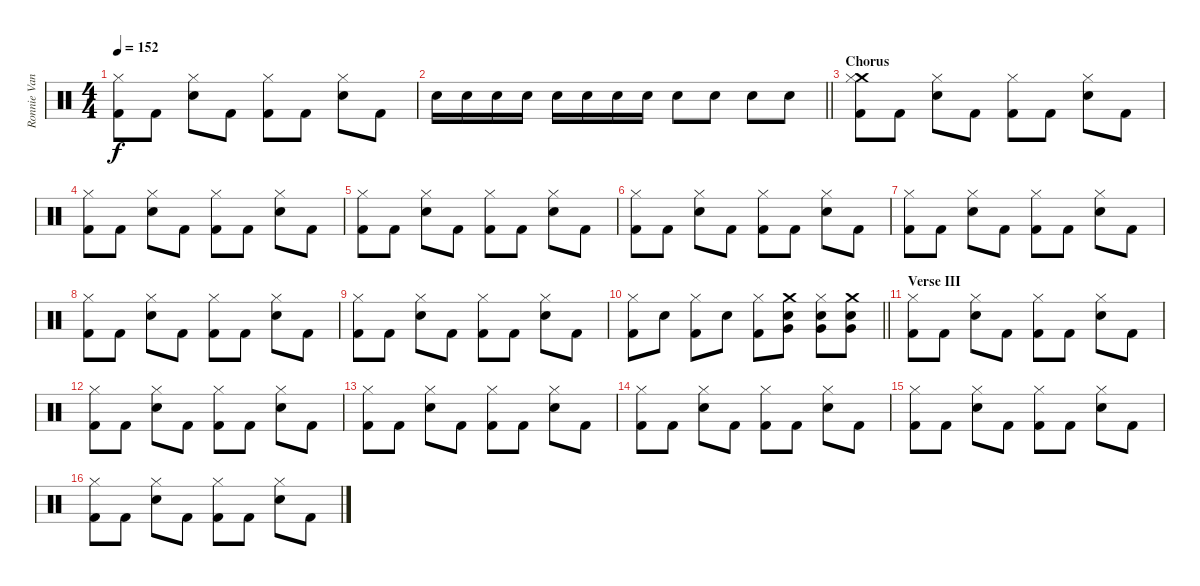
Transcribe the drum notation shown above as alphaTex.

\track ("Ronnie Vannucci Jr." "Ronnie Van") {instrument percussion}
\staff
\articulation defaults
\ts (4 4)
\tempo 152
\clef neutral
\ks c
("Hi-Hat (closed)" "Kick (hit) 2").8{dy f} "Kick (hit) 2".8 ("Hi-Hat (closed)" "Electric Snare (hit)").8 "Kick (hit) 2".8 ("Hi-Hat (closed)" "Kick (hit) 2").8 "Kick (hit) 2".8 ("Hi-Hat (closed)" "Electric Snare (hit)").8 "Kick (hit) 2".8 |
\barLineRight lightlight "Electric Snare (hit)".16 "Electric Snare (hit)".16 "Electric Snare (hit)".16 "Electric Snare (hit)".16 "Electric Snare (hit)".16 "Electric Snare (hit)".16 "Electric Snare (hit)".16 "Electric Snare (hit)".16 "Electric Snare (hit)".8 "Electric Snare (hit)".8 "Electric Snare (hit)".8 "Electric Snare (hit)".8
|
\section ("" "Chorus")
("Crash medium (hit)" "Hi-Hat (closed)" "Kick (hit) 2").8 "Kick (hit) 2".8 ("Hi-Hat (closed)" "Electric Snare (hit)").8 "Kick (hit) 2".8 ("Hi-Hat (closed)" "Kick (hit) 2").8 "Kick (hit) 2".8 ("Hi-Hat (closed)" "Electric Snare (hit)").8 "Kick (hit) 2".8 |
("Hi-Hat (closed)" "Kick (hit) 2").8 "Kick (hit) 2".8 ("Hi-Hat (closed)" "Electric Snare (hit)").8 "Kick (hit) 2".8 ("Hi-Hat (closed)" "Kick (hit) 2").8 "Kick (hit) 2".8 ("Hi-Hat (closed)" "Electric Snare (hit)").8 "Kick (hit) 2".8 |
("Hi-Hat (closed)" "Kick (hit) 2").8 "Kick (hit) 2".8 ("Hi-Hat (closed)" "Electric Snare (hit)").8 "Kick (hit) 2".8 ("Hi-Hat (closed)" "Kick (hit) 2").8 "Kick (hit) 2".8 ("Hi-Hat (closed)" "Electric Snare (hit)").8 "Kick (hit) 2".8 |
("Hi-Hat (closed)" "Kick (hit) 2").8 "Kick (hit) 2".8 ("Hi-Hat (closed)" "Electric Snare (hit)").8 "Kick (hit) 2".8 ("Hi-Hat (closed)" "Kick (hit) 2").8 "Kick (hit) 2".8 ("Hi-Hat (closed)" "Electric Snare (hit)").8 "Kick (hit) 2".8 |
("Hi-Hat (closed)" "Kick (hit) 2").8 "Kick (hit) 2".8 ("Hi-Hat (closed)" "Electric Snare (hit)").8 "Kick (hit) 2".8 ("Hi-Hat (closed)" "Kick (hit) 2").8 "Kick (hit) 2".8 ("Hi-Hat (closed)" "Electric Snare (hit)").8 "Kick (hit) 2".8 |
("Hi-Hat (closed)" "Kick (hit) 2").8 "Kick (hit) 2".8 ("Hi-Hat (closed)" "Electric Snare (hit)").8 "Kick (hit) 2".8 ("Hi-Hat (closed)" "Kick (hit) 2").8 "Kick (hit) 2".8 ("Hi-Hat (closed)" "Electric Snare (hit)").8 "Kick (hit) 2".8 |
("Hi-Hat (closed)" "Kick (hit) 2").8 "Kick (hit) 2".8 ("Hi-Hat (closed)" "Electric Snare (hit)").8 "Kick (hit) 2".8 ("Hi-Hat (closed)" "Kick (hit) 2").8 "Kick (hit) 2".8 ("Hi-Hat (closed)" "Electric Snare (hit)").8 "Kick (hit) 2".8 |
\barLineRight lightlight
("Hi-Hat (closed)" "Kick (hit) 2").8 "Electric Snare (hit)".8 ("Hi-Hat (closed)" "Kick (hit) 2").8 "Electric Snare (hit)".8 ("Hi-Hat (closed)" "Kick (hit) 2").8 ("Crash medium (hit)" "Very Low Tom (hit)" "Electric Snare (hit)").8 ("Hi-Hat (closed)" "Very Low Tom (hit)" "Electric Snare (hit)").8 ("Crash medium (hit)" "Very Low Tom (hit)" "Electric Snare (hit)").8 |
\section ("" "Verse III")
("Hi-Hat (closed)" "Kick (hit) 2").8 "Kick (hit) 2".8 ("Hi-Hat (closed)" "Electric Snare (hit)").8 "Kick (hit) 2".8 ("Hi-Hat (closed)" "Kick (hit) 2").8 "Kick (hit) 2".8 ("Hi-Hat (closed)" "Electric Snare (hit)").8 "Kick (hit) 2".8 |
("Hi-Hat (closed)" "Kick (hit) 2").8 "Kick (hit) 2".8 ("Hi-Hat (closed)" "Electric Snare (hit)").8 "Kick (hit) 2".8 ("Hi-Hat (closed)" "Kick (hit) 2").8 "Kick (hit) 2".8 ("Hi-Hat (closed)" "Electric Snare (hit)").8 "Kick (hit) 2".8 |
("Hi-Hat (closed)" "Kick (hit) 2").8 "Kick (hit) 2".8 ("Hi-Hat (closed)" "Electric Snare (hit)").8 "Kick (hit) 2".8 ("Hi-Hat (closed)" "Kick (hit) 2").8 "Kick (hit) 2".8 ("Hi-Hat (closed)" "Electric Snare (hit)").8 "Kick (hit) 2".8 |
("Hi-Hat (closed)" "Kick (hit) 2").8 "Kick (hit) 2".8 ("Hi-Hat (closed)" "Electric Snare (hit)").8 "Kick (hit) 2".8 ("Hi-Hat (closed)" "Kick (hit) 2").8 "Kick (hit) 2".8 ("Hi-Hat (closed)" "Electric Snare (hit)").8 "Kick (hit) 2".8 |
("Hi-Hat (closed)" "Kick (hit) 2").8 "Kick (hit) 2".8 ("Hi-Hat (closed)" "Electric Snare (hit)").8 "Kick (hit) 2".8 ("Hi-Hat (closed)" "Kick (hit) 2").8 "Kick (hit) 2".8 ("Hi-Hat (closed)" "Electric Snare (hit)").8 "Kick (hit) 2".8 |
("Hi-Hat (closed)" "Kick (hit) 2").8 "Kick (hit) 2".8 ("Hi-Hat (closed)" "Electric Snare (hit)").8 "Kick (hit) 2".8 ("Hi-Hat (closed)" "Kick (hit) 2").8 "Kick (hit) 2".8 ("Hi-Hat (closed)" "Electric Snare (hit)").8 "Kick (hit) 2".8
